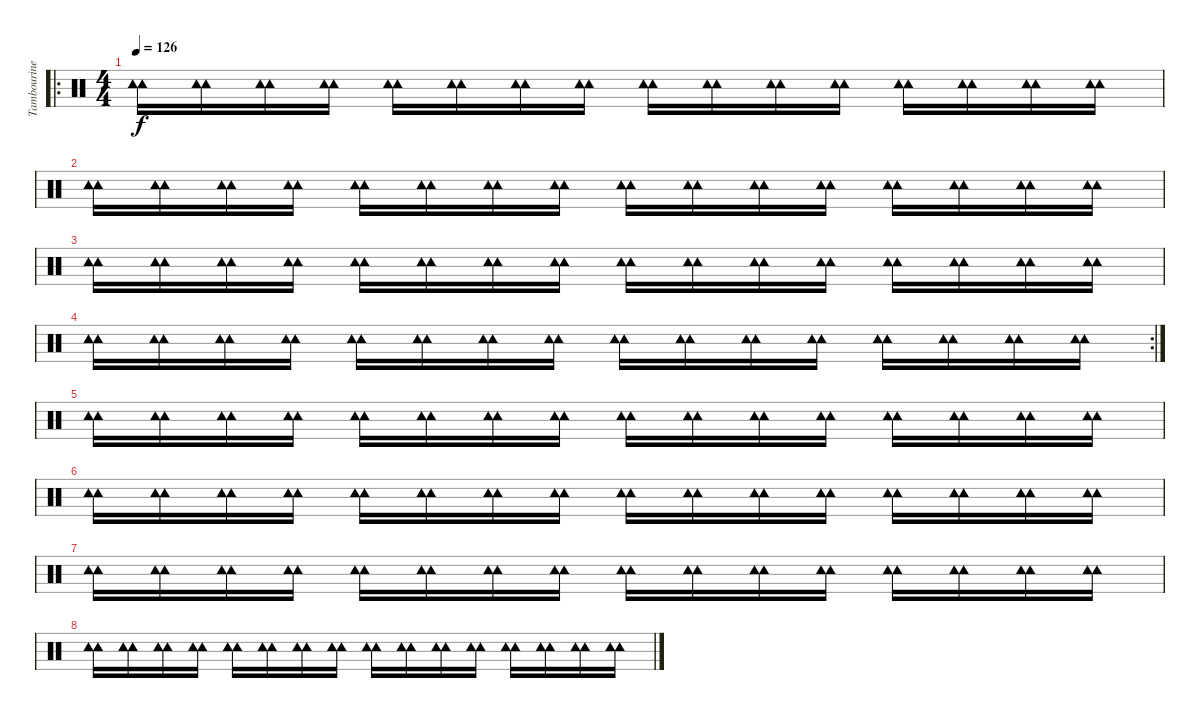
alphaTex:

\track ("Tambourine" "Tambourine") {instrument percussion}
\staff {score}
\articulation defaults
\ro
\ts (4 4)
\tempo 126
\clef neutral
\ks c
("Tambourine (hit)" "Tambourine (hit)").16{dy f} ("Tambourine (hit)" "Tambourine (hit)").16 ("Tambourine (hit)" "Tambourine (hit)").16 ("Tambourine (hit)" "Tambourine (hit)").16 ("Tambourine (hit)" "Tambourine (hit)").16 ("Tambourine (hit)" "Tambourine (hit)").16 ("Tambourine (hit)" "Tambourine (hit)").16 ("Tambourine (hit)" "Tambourine (hit)").16 ("Tambourine (hit)" "Tambourine (hit)").16 ("Tambourine (hit)" "Tambourine (hit)").16 ("Tambourine (hit)" "Tambourine (hit)").16 ("Tambourine (hit)" "Tambourine (hit)").16 ("Tambourine (hit)" "Tambourine (hit)").16 ("Tambourine (hit)" "Tambourine (hit)").16 ("Tambourine (hit)" "Tambourine (hit)").16 ("Tambourine (hit)" "Tambourine (hit)").16 |
("Tambourine (hit)" "Tambourine (hit)").16 ("Tambourine (hit)" "Tambourine (hit)").16 ("Tambourine (hit)" "Tambourine (hit)").16 ("Tambourine (hit)" "Tambourine (hit)").16 ("Tambourine (hit)" "Tambourine (hit)").16 ("Tambourine (hit)" "Tambourine (hit)").16 ("Tambourine (hit)" "Tambourine (hit)").16 ("Tambourine (hit)" "Tambourine (hit)").16 ("Tambourine (hit)" "Tambourine (hit)").16 ("Tambourine (hit)" "Tambourine (hit)").16 ("Tambourine (hit)" "Tambourine (hit)").16 ("Tambourine (hit)" "Tambourine (hit)").16 ("Tambourine (hit)" "Tambourine (hit)").16 ("Tambourine (hit)" "Tambourine (hit)").16 ("Tambourine (hit)" "Tambourine (hit)").16 ("Tambourine (hit)" "Tambourine (hit)").16 |
("Tambourine (hit)" "Tambourine (hit)").16 ("Tambourine (hit)" "Tambourine (hit)").16 ("Tambourine (hit)" "Tambourine (hit)").16 ("Tambourine (hit)" "Tambourine (hit)").16 ("Tambourine (hit)" "Tambourine (hit)").16 ("Tambourine (hit)" "Tambourine (hit)").16 ("Tambourine (hit)" "Tambourine (hit)").16 ("Tambourine (hit)" "Tambourine (hit)").16 ("Tambourine (hit)" "Tambourine (hit)").16 ("Tambourine (hit)" "Tambourine (hit)").16 ("Tambourine (hit)" "Tambourine (hit)").16 ("Tambourine (hit)" "Tambourine (hit)").16 ("Tambourine (hit)" "Tambourine (hit)").16 ("Tambourine (hit)" "Tambourine (hit)").16 ("Tambourine (hit)" "Tambourine (hit)").16 ("Tambourine (hit)" "Tambourine (hit)").16 |
\rc 2
("Tambourine (hit)" "Tambourine (hit)").16 ("Tambourine (hit)" "Tambourine (hit)").16 ("Tambourine (hit)" "Tambourine (hit)").16 ("Tambourine (hit)" "Tambourine (hit)").16 ("Tambourine (hit)" "Tambourine (hit)").16 ("Tambourine (hit)" "Tambourine (hit)").16 ("Tambourine (hit)" "Tambourine (hit)").16 ("Tambourine (hit)" "Tambourine (hit)").16 ("Tambourine (hit)" "Tambourine (hit)").16 ("Tambourine (hit)" "Tambourine (hit)").16 ("Tambourine (hit)" "Tambourine (hit)").16 ("Tambourine (hit)" "Tambourine (hit)").16 ("Tambourine (hit)" "Tambourine (hit)").16 ("Tambourine (hit)" "Tambourine (hit)").16 ("Tambourine (hit)" "Tambourine (hit)").16 ("Tambourine (hit)" "Tambourine (hit)").16 |
("Tambourine (hit)" "Tambourine (hit)").16{volume 8} ("Tambourine (hit)" "Tambourine (hit)").16 ("Tambourine (hit)" "Tambourine (hit)").16 ("Tambourine (hit)" "Tambourine (hit)").16 ("Tambourine (hit)" "Tambourine (hit)").16 ("Tambourine (hit)" "Tambourine (hit)").16 ("Tambourine (hit)" "Tambourine (hit)").16 ("Tambourine (hit)" "Tambourine (hit)").16 ("Tambourine (hit)" "Tambourine (hit)").16 ("Tambourine (hit)" "Tambourine (hit)").16 ("Tambourine (hit)" "Tambourine (hit)").16 ("Tambourine (hit)" "Tambourine (hit)").16 ("Tambourine (hit)" "Tambourine (hit)").16 ("Tambourine (hit)" "Tambourine (hit)").16 ("Tambourine (hit)" "Tambourine (hit)").16 ("Tambourine (hit)" "Tambourine (hit)").16 |
("Tambourine (hit)" "Tambourine (hit)").16 ("Tambourine (hit)" "Tambourine (hit)").16 ("Tambourine (hit)" "Tambourine (hit)").16 ("Tambourine (hit)" "Tambourine (hit)").16 ("Tambourine (hit)" "Tambourine (hit)").16 ("Tambourine (hit)" "Tambourine (hit)").16 ("Tambourine (hit)" "Tambourine (hit)").16 ("Tambourine (hit)" "Tambourine (hit)").16 ("Tambourine (hit)" "Tambourine (hit)").16 ("Tambourine (hit)" "Tambourine (hit)").16 ("Tambourine (hit)" "Tambourine (hit)").16 ("Tambourine (hit)" "Tambourine (hit)").16 ("Tambourine (hit)" "Tambourine (hit)").16 ("Tambourine (hit)" "Tambourine (hit)").16 ("Tambourine (hit)" "Tambourine (hit)").16 ("Tambourine (hit)" "Tambourine (hit)").16 |
("Tambourine (hit)" "Tambourine (hit)").16{volume 0} ("Tambourine (hit)" "Tambourine (hit)").16 ("Tambourine (hit)" "Tambourine (hit)").16 ("Tambourine (hit)" "Tambourine (hit)").16 ("Tambourine (hit)" "Tambourine (hit)").16 ("Tambourine (hit)" "Tambourine (hit)").16 ("Tambourine (hit)" "Tambourine (hit)").16 ("Tambourine (hit)" "Tambourine (hit)").16 ("Tambourine (hit)" "Tambourine (hit)").16 ("Tambourine (hit)" "Tambourine (hit)").16 ("Tambourine (hit)" "Tambourine (hit)").16 ("Tambourine (hit)" "Tambourine (hit)").16 ("Tambourine (hit)" "Tambourine (hit)").16 ("Tambourine (hit)" "Tambourine (hit)").16 ("Tambourine (hit)" "Tambourine (hit)").16 ("Tambourine (hit)" "Tambourine (hit)").16 |
("Tambourine (hit)" "Tambourine (hit)").16 ("Tambourine (hit)" "Tambourine (hit)").16 ("Tambourine (hit)" "Tambourine (hit)").16 ("Tambourine (hit)" "Tambourine (hit)").16 ("Tambourine (hit)" "Tambourine (hit)").16 ("Tambourine (hit)" "Tambourine (hit)").16 ("Tambourine (hit)" "Tambourine (hit)").16 ("Tambourine (hit)" "Tambourine (hit)").16 ("Tambourine (hit)" "Tambourine (hit)").16 ("Tambourine (hit)" "Tambourine (hit)").16 ("Tambourine (hit)" "Tambourine (hit)").16 ("Tambourine (hit)" "Tambourine (hit)").16 ("Tambourine (hit)" "Tambourine (hit)").16 ("Tambourine (hit)" "Tambourine (hit)").16 ("Tambourine (hit)" "Tambourine (hit)").16 ("Tambourine (hit)" "Tambourine (hit)").16
